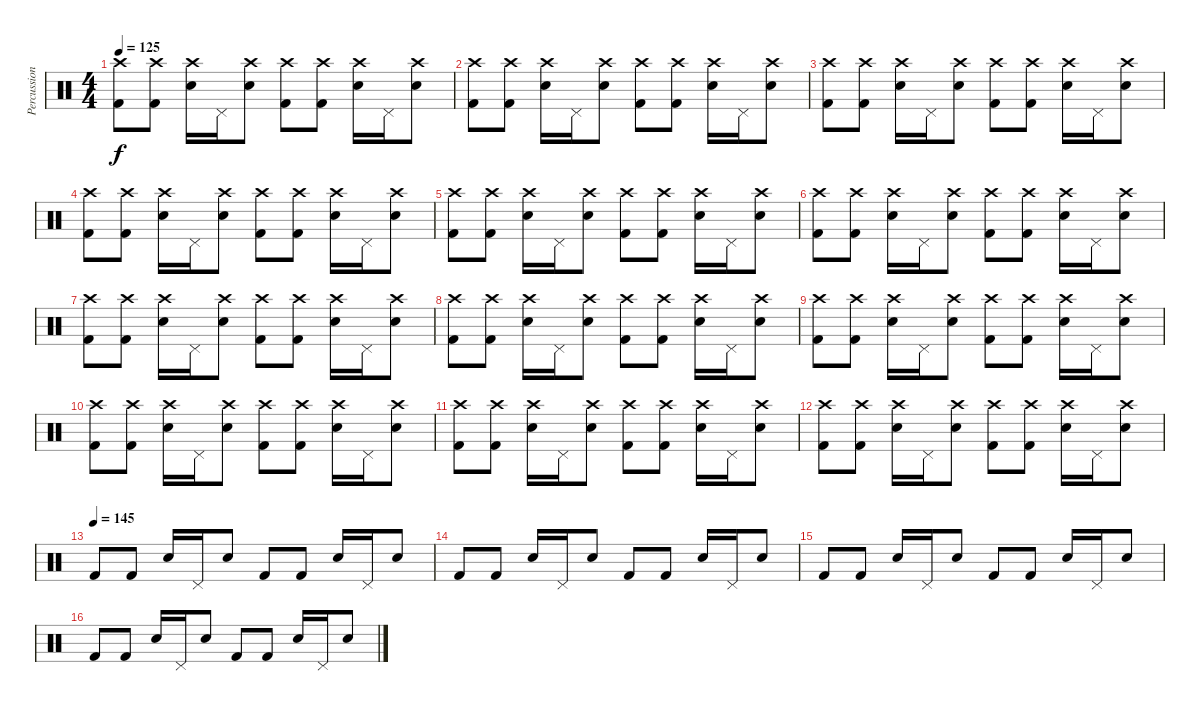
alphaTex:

\track ("Percussion" "Percussion") {instrument percussion}
\staff {score}
\articulation defaults
\ts (4 4)
\tempo 125
\clef neutral
\ks c
("Crash high (hit)" "Kick (hit) 2").8{dy f} ("Crash high (hit)" "Kick (hit) 2").8 ("Crash high (hit)" "Electric Snare (hit)").16 "Pedal Hi-Hat (hit)".16 ("Crash high (hit)" "Electric Snare (hit)").8 ("Crash high (hit)" "Kick (hit) 2").8 ("Crash high (hit)" "Kick (hit) 2").8 ("Crash high (hit)" "Electric Snare (hit)").16 "Pedal Hi-Hat (hit)".16 ("Crash high (hit)" "Electric Snare (hit)").8 |
("Crash high (hit)" "Kick (hit) 2").8 ("Crash high (hit)" "Kick (hit) 2").8 ("Crash high (hit)" "Electric Snare (hit)").16 "Pedal Hi-Hat (hit)".16 ("Crash high (hit)" "Electric Snare (hit)").8 ("Crash high (hit)" "Kick (hit) 2").8 ("Crash high (hit)" "Kick (hit) 2").8 ("Crash high (hit)" "Electric Snare (hit)").16 "Pedal Hi-Hat (hit)".16 ("Crash high (hit)" "Electric Snare (hit)").8 |
("Crash high (hit)" "Kick (hit) 2").8 ("Crash high (hit)" "Kick (hit) 2").8 ("Crash high (hit)" "Electric Snare (hit)").16 "Pedal Hi-Hat (hit)".16 ("Crash high (hit)" "Electric Snare (hit)").8 ("Crash high (hit)" "Kick (hit) 2").8 ("Crash high (hit)" "Kick (hit) 2").8 ("Crash high (hit)" "Electric Snare (hit)").16 "Pedal Hi-Hat (hit)".16 ("Crash high (hit)" "Electric Snare (hit)").8 |
("Crash high (hit)" "Kick (hit) 2").8 ("Crash high (hit)" "Kick (hit) 2").8 ("Crash high (hit)" "Electric Snare (hit)").16 "Pedal Hi-Hat (hit)".16 ("Crash high (hit)" "Electric Snare (hit)").8 ("Crash high (hit)" "Kick (hit) 2").8 ("Crash high (hit)" "Kick (hit) 2").8 ("Crash high (hit)" "Electric Snare (hit)").16 "Pedal Hi-Hat (hit)".16 ("Crash high (hit)" "Electric Snare (hit)").8 |
("Crash high (hit)" "Kick (hit) 2").8 ("Crash high (hit)" "Kick (hit) 2").8 ("Crash high (hit)" "Electric Snare (hit)").16 "Pedal Hi-Hat (hit)".16 ("Crash high (hit)" "Electric Snare (hit)").8 ("Crash high (hit)" "Kick (hit) 2").8 ("Crash high (hit)" "Kick (hit) 2").8 ("Crash high (hit)" "Electric Snare (hit)").16 "Pedal Hi-Hat (hit)".16 ("Crash high (hit)" "Electric Snare (hit)").8 |
("Crash high (hit)" "Kick (hit) 2").8 ("Crash high (hit)" "Kick (hit) 2").8 ("Crash high (hit)" "Electric Snare (hit)").16 "Pedal Hi-Hat (hit)".16 ("Crash high (hit)" "Electric Snare (hit)").8 ("Crash high (hit)" "Kick (hit) 2").8 ("Crash high (hit)" "Kick (hit) 2").8 ("Crash high (hit)" "Electric Snare (hit)").16 "Pedal Hi-Hat (hit)".16 ("Crash high (hit)" "Electric Snare (hit)").8 |
("Crash high (hit)" "Kick (hit) 2").8 ("Crash high (hit)" "Kick (hit) 2").8 ("Crash high (hit)" "Electric Snare (hit)").16 "Pedal Hi-Hat (hit)".16 ("Crash high (hit)" "Electric Snare (hit)").8 ("Crash high (hit)" "Kick (hit) 2").8 ("Crash high (hit)" "Kick (hit) 2").8 ("Crash high (hit)" "Electric Snare (hit)").16 "Pedal Hi-Hat (hit)".16 ("Crash high (hit)" "Electric Snare (hit)").8 |
("Crash high (hit)" "Kick (hit) 2").8 ("Crash high (hit)" "Kick (hit) 2").8 ("Crash high (hit)" "Electric Snare (hit)").16 "Pedal Hi-Hat (hit)".16 ("Crash high (hit)" "Electric Snare (hit)").8 ("Crash high (hit)" "Kick (hit) 2").8 ("Crash high (hit)" "Kick (hit) 2").8 ("Crash high (hit)" "Electric Snare (hit)").16 "Pedal Hi-Hat (hit)".16 ("Crash high (hit)" "Electric Snare (hit)").8 |
("Crash high (hit)" "Kick (hit) 2").8 ("Crash high (hit)" "Kick (hit) 2").8 ("Crash high (hit)" "Electric Snare (hit)").16 "Pedal Hi-Hat (hit)".16 ("Crash high (hit)" "Electric Snare (hit)").8 ("Crash high (hit)" "Kick (hit) 2").8 ("Crash high (hit)" "Kick (hit) 2").8 ("Crash high (hit)" "Electric Snare (hit)").16 "Pedal Hi-Hat (hit)".16 ("Crash high (hit)" "Electric Snare (hit)").8 |
("Crash high (hit)" "Kick (hit) 2").8 ("Crash high (hit)" "Kick (hit) 2").8 ("Crash high (hit)" "Electric Snare (hit)").16 "Pedal Hi-Hat (hit)".16 ("Crash high (hit)" "Electric Snare (hit)").8 ("Crash high (hit)" "Kick (hit) 2").8 ("Crash high (hit)" "Kick (hit) 2").8 ("Crash high (hit)" "Electric Snare (hit)").16 "Pedal Hi-Hat (hit)".16 ("Crash high (hit)" "Electric Snare (hit)").8 |
("Crash high (hit)" "Kick (hit) 2").8 ("Crash high (hit)" "Kick (hit) 2").8 ("Crash high (hit)" "Electric Snare (hit)").16 "Pedal Hi-Hat (hit)".16 ("Crash high (hit)" "Electric Snare (hit)").8 ("Crash high (hit)" "Kick (hit) 2").8 ("Crash high (hit)" "Kick (hit) 2").8 ("Crash high (hit)" "Electric Snare (hit)").16 "Pedal Hi-Hat (hit)".16 ("Crash high (hit)" "Electric Snare (hit)").8 |
("Crash high (hit)" "Kick (hit) 2").8 ("Crash high (hit)" "Kick (hit) 2").8 ("Crash high (hit)" "Electric Snare (hit)").16 "Pedal Hi-Hat (hit)".16 ("Crash high (hit)" "Electric Snare (hit)").8 ("Crash high (hit)" "Kick (hit) 2").8 ("Crash high (hit)" "Kick (hit) 2").8 ("Crash high (hit)" "Electric Snare (hit)").16 "Pedal Hi-Hat (hit)".16 ("Crash high (hit)" "Electric Snare (hit)").8 |
\tempo (145)
"Kick (hit) 2".8 "Kick (hit) 2".8 "Electric Snare (hit)".16 "Pedal Hi-Hat (hit)".16 "Electric Snare (hit)".8 "Kick (hit) 2".8 "Kick (hit) 2".8 "Electric Snare (hit)".16 "Pedal Hi-Hat (hit)".16 "Electric Snare (hit)".8 |
"Kick (hit) 2".8 "Kick (hit) 2".8 "Electric Snare (hit)".16 "Pedal Hi-Hat (hit)".16 "Electric Snare (hit)".8 "Kick (hit) 2".8 "Kick (hit) 2".8 "Electric Snare (hit)".16 "Pedal Hi-Hat (hit)".16 "Electric Snare (hit)".8 |
"Kick (hit) 2".8 "Kick (hit) 2".8 "Electric Snare (hit)".16 "Pedal Hi-Hat (hit)".16 "Electric Snare (hit)".8 "Kick (hit) 2".8 "Kick (hit) 2".8 "Electric Snare (hit)".16 "Pedal Hi-Hat (hit)".16 "Electric Snare (hit)".8 |
"Kick (hit) 2".8 "Kick (hit) 2".8 "Electric Snare (hit)".16 "Pedal Hi-Hat (hit)".16 "Electric Snare (hit)".8 "Kick (hit) 2".8 "Kick (hit) 2".8 "Electric Snare (hit)".16 "Pedal Hi-Hat (hit)".16 "Electric Snare (hit)".8
